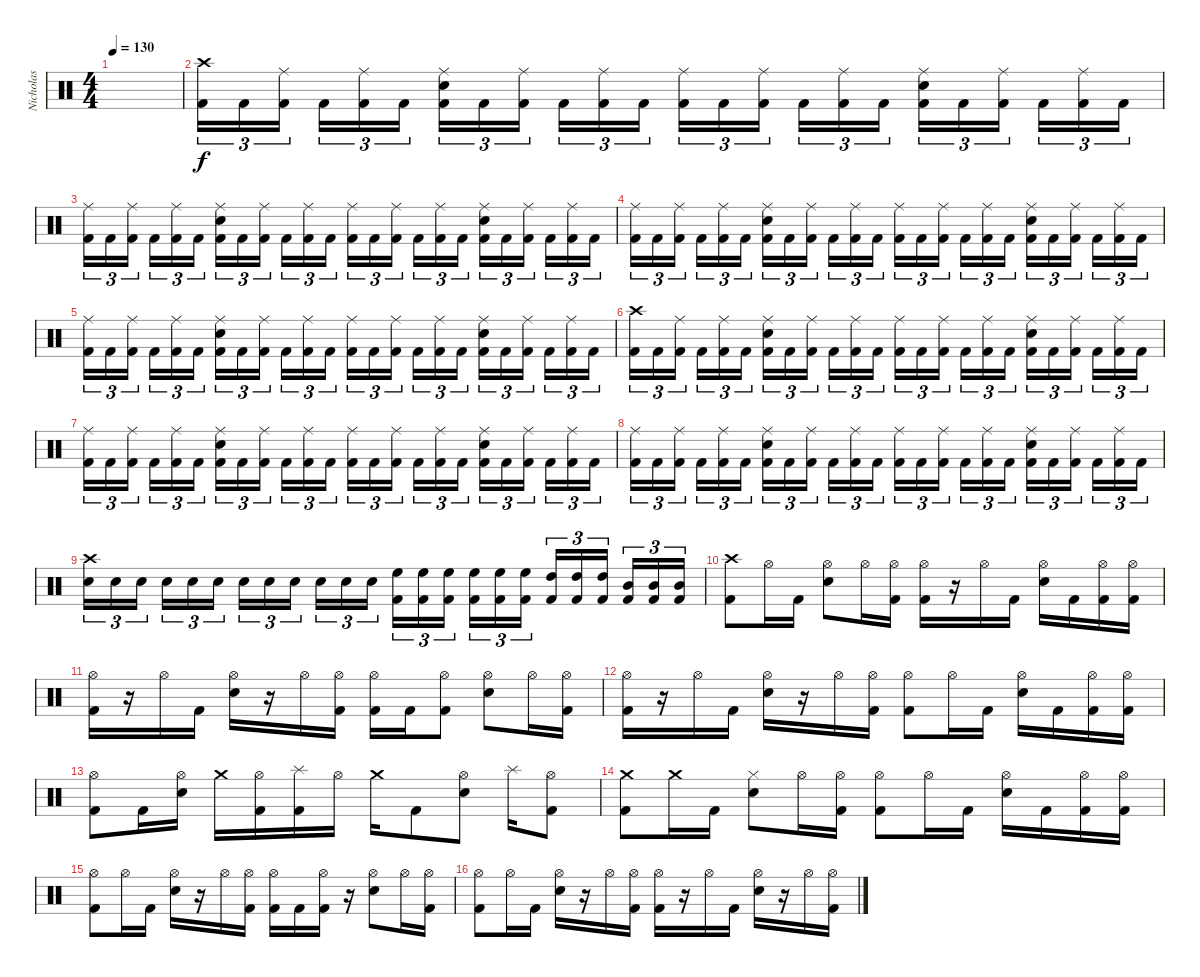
\track ("Nicholas" "Nicholas") {instrument percussion}
\staff {score}
\articulation defaults
\ts (4 4)
\tempo 130
\clef neutral
\ks c
|
("Crash high (hit)" "Kick (hit) 2").16{tu (3 2)} "Kick (hit) 2".16{tu (3 2)} ("Ride (middle)" "Kick (hit) 2").16{tu (3 2)} "Kick (hit) 2".16{tu (3 2)} ("Ride (middle)" "Kick (hit) 2").16{tu (3 2)} "Kick (hit) 2".16{tu (3 2)} ("Ride (middle)" "Snare (hit) 2" "Kick (hit) 2").16{tu (3 2)} "Kick (hit) 2".16{tu (3 2)} ("Ride (middle)" "Kick (hit) 2").16{tu (3 2)} "Kick (hit) 2".16{tu (3 2)} ("Ride (middle)" "Kick (hit) 2").16{tu (3 2)} "Kick (hit) 2".16{tu (3 2)} ("Ride (middle)" "Kick (hit) 2").16{tu (3 2)} "Kick (hit) 2".16{tu (3 2)} ("Ride (middle)" "Kick (hit) 2").16{tu (3 2)} "Kick (hit) 2".16{tu (3 2)} ("Ride (middle)" "Kick (hit) 2").16{tu (3 2)} "Kick (hit) 2".16{tu (3 2)} ("Ride (middle)" "Snare (hit) 2" "Kick (hit) 2").16{tu (3 2)} "Kick (hit) 2".16{tu (3 2)} ("Ride (middle)" "Kick (hit) 2").16{tu (3 2)} "Kick (hit) 2".16{tu (3 2)} ("Ride (middle)" "Kick (hit) 2").16{tu (3 2)} "Kick (hit) 2".16{tu (3 2)} |
("Ride (middle)" "Kick (hit) 2").16{tu (3 2)} "Kick (hit) 2".16{tu (3 2)} ("Ride (middle)" "Kick (hit) 2").16{tu (3 2)} "Kick (hit) 2".16{tu (3 2)} ("Ride (middle)" "Kick (hit) 2").16{tu (3 2)} "Kick (hit) 2".16{tu (3 2)} ("Ride (middle)" "Snare (hit) 2" "Kick (hit) 2").16{tu (3 2)} "Kick (hit) 2".16{tu (3 2)} ("Ride (middle)" "Kick (hit) 2").16{tu (3 2)} "Kick (hit) 2".16{tu (3 2)} ("Ride (middle)" "Kick (hit) 2").16{tu (3 2)} "Kick (hit) 2".16{tu (3 2)} ("Ride (middle)" "Kick (hit) 2").16{tu (3 2)} "Kick (hit) 2".16{tu (3 2)} ("Ride (middle)" "Kick (hit) 2").16{tu (3 2)} "Kick (hit) 2".16{tu (3 2)} ("Ride (middle)" "Kick (hit) 2").16{tu (3 2)} "Kick (hit) 2".16{tu (3 2)} ("Ride (middle)" "Snare (hit) 2" "Kick (hit) 2").16{tu (3 2)} "Kick (hit) 2".16{tu (3 2)} ("Ride (middle)" "Kick (hit) 2").16{tu (3 2)} "Kick (hit) 2".16{tu (3 2)} ("Ride (middle)" "Kick (hit) 2").16{tu (3 2)} "Kick (hit) 2".16{tu (3 2)} |
("Ride (middle)" "Kick (hit) 2").16{tu (3 2)} "Kick (hit) 2".16{tu (3 2)} ("Ride (middle)" "Kick (hit) 2").16{tu (3 2)} "Kick (hit) 2".16{tu (3 2)} ("Ride (middle)" "Kick (hit) 2").16{tu (3 2)} "Kick (hit) 2".16{tu (3 2)} ("Ride (middle)" "Snare (hit) 2" "Kick (hit) 2").16{tu (3 2)} "Kick (hit) 2".16{tu (3 2)} ("Ride (middle)" "Kick (hit) 2").16{tu (3 2)} "Kick (hit) 2".16{tu (3 2)} ("Ride (middle)" "Kick (hit) 2").16{tu (3 2)} "Kick (hit) 2".16{tu (3 2)} ("Ride (middle)" "Kick (hit) 2").16{tu (3 2)} "Kick (hit) 2".16{tu (3 2)} ("Ride (middle)" "Kick (hit) 2").16{tu (3 2)} "Kick (hit) 2".16{tu (3 2)} ("Ride (middle)" "Kick (hit) 2").16{tu (3 2)} "Kick (hit) 2".16{tu (3 2)} ("Ride (middle)" "Snare (hit) 2" "Kick (hit) 2").16{tu (3 2)} "Kick (hit) 2".16{tu (3 2)} ("Ride (middle)" "Kick (hit) 2").16{tu (3 2)} "Kick (hit) 2".16{tu (3 2)} ("Ride (middle)" "Kick (hit) 2").16{tu (3 2)} "Kick (hit) 2".16{tu (3 2)} |
("Ride (middle)" "Kick (hit) 2").16{tu (3 2)} "Kick (hit) 2".16{tu (3 2)} ("Ride (middle)" "Kick (hit) 2").16{tu (3 2)} "Kick (hit) 2".16{tu (3 2)} ("Ride (middle)" "Kick (hit) 2").16{tu (3 2)} "Kick (hit) 2".16{tu (3 2)} ("Ride (middle)" "Snare (hit) 2" "Kick (hit) 2").16{tu (3 2)} "Kick (hit) 2".16{tu (3 2)} ("Ride (middle)" "Kick (hit) 2").16{tu (3 2)} "Kick (hit) 2".16{tu (3 2)} ("Ride (middle)" "Kick (hit) 2").16{tu (3 2)} "Kick (hit) 2".16{tu (3 2)} ("Ride (middle)" "Kick (hit) 2").16{tu (3 2)} "Kick (hit) 2".16{tu (3 2)} ("Ride (middle)" "Kick (hit) 2").16{tu (3 2)} "Kick (hit) 2".16{tu (3 2)} ("Ride (middle)" "Kick (hit) 2").16{tu (3 2)} "Kick (hit) 2".16{tu (3 2)} ("Ride (middle)" "Snare (hit) 2" "Kick (hit) 2").16{tu (3 2)} "Kick (hit) 2".16{tu (3 2)} ("Ride (middle)" "Kick (hit) 2").16{tu (3 2)} "Kick (hit) 2".16{tu (3 2)} ("Ride (middle)" "Kick (hit) 2").16{tu (3 2)} "Kick (hit) 2".16{tu (3 2)} |
("Crash high (hit)" "Kick (hit) 2").16{tu (3 2)} "Kick (hit) 2".16{tu (3 2)} ("Ride (middle)" "Kick (hit) 2").16{tu (3 2)} "Kick (hit) 2".16{tu (3 2)} ("Ride (middle)" "Kick (hit) 2").16{tu (3 2)} "Kick (hit) 2".16{tu (3 2)} ("Ride (middle)" "Snare (hit) 2" "Kick (hit) 2").16{tu (3 2)} "Kick (hit) 2".16{tu (3 2)} ("Ride (middle)" "Kick (hit) 2").16{tu (3 2)} "Kick (hit) 2".16{tu (3 2)} ("Ride (middle)" "Kick (hit) 2").16{tu (3 2)} "Kick (hit) 2".16{tu (3 2)} ("Ride (middle)" "Kick (hit) 2").16{tu (3 2)} "Kick (hit) 2".16{tu (3 2)} ("Ride (middle)" "Kick (hit) 2").16{tu (3 2)} "Kick (hit) 2".16{tu (3 2)} ("Ride (middle)" "Kick (hit) 2").16{tu (3 2)} "Kick (hit) 2".16{tu (3 2)} ("Ride (middle)" "Snare (hit) 2" "Kick (hit) 2").16{tu (3 2)} "Kick (hit) 2".16{tu (3 2)} ("Ride (middle)" "Kick (hit) 2").16{tu (3 2)} "Kick (hit) 2".16{tu (3 2)} ("Ride (middle)" "Kick (hit) 2").16{tu (3 2)} "Kick (hit) 2".16{tu (3 2)} |
("Ride (middle)" "Kick (hit) 2").16{tu (3 2)} "Kick (hit) 2".16{tu (3 2)} ("Ride (middle)" "Kick (hit) 2").16{tu (3 2)} "Kick (hit) 2".16{tu (3 2)} ("Ride (middle)" "Kick (hit) 2").16{tu (3 2)} "Kick (hit) 2".16{tu (3 2)} ("Ride (middle)" "Snare (hit) 2" "Kick (hit) 2").16{tu (3 2)} "Kick (hit) 2".16{tu (3 2)} ("Ride (middle)" "Kick (hit) 2").16{tu (3 2)} "Kick (hit) 2".16{tu (3 2)} ("Ride (middle)" "Kick (hit) 2").16{tu (3 2)} "Kick (hit) 2".16{tu (3 2)} ("Ride (middle)" "Kick (hit) 2").16{tu (3 2)} "Kick (hit) 2".16{tu (3 2)} ("Ride (middle)" "Kick (hit) 2").16{tu (3 2)} "Kick (hit) 2".16{tu (3 2)} ("Ride (middle)" "Kick (hit) 2").16{tu (3 2)} "Kick (hit) 2".16{tu (3 2)} ("Ride (middle)" "Snare (hit) 2" "Kick (hit) 2").16{tu (3 2)} "Kick (hit) 2".16{tu (3 2)} ("Ride (middle)" "Kick (hit) 2").16{tu (3 2)} "Kick (hit) 2".16{tu (3 2)} ("Ride (middle)" "Kick (hit) 2").16{tu (3 2)} "Kick (hit) 2".16{tu (3 2)} |
("Ride (middle)" "Kick (hit) 2").16{tu (3 2)} "Kick (hit) 2".16{tu (3 2)} ("Ride (middle)" "Kick (hit) 2").16{tu (3 2)} "Kick (hit) 2".16{tu (3 2)} ("Ride (middle)" "Kick (hit) 2").16{tu (3 2)} "Kick (hit) 2".16{tu (3 2)} ("Ride (middle)" "Snare (hit) 2" "Kick (hit) 2").16{tu (3 2)} "Kick (hit) 2".16{tu (3 2)} ("Ride (middle)" "Kick (hit) 2").16{tu (3 2)} "Kick (hit) 2".16{tu (3 2)} ("Ride (middle)" "Kick (hit) 2").16{tu (3 2)} "Kick (hit) 2".16{tu (3 2)} ("Ride (middle)" "Kick (hit) 2").16{tu (3 2)} "Kick (hit) 2".16{tu (3 2)} ("Ride (middle)" "Kick (hit) 2").16{tu (3 2)} "Kick (hit) 2".16{tu (3 2)} ("Ride (middle)" "Kick (hit) 2").16{tu (3 2)} "Kick (hit) 2".16{tu (3 2)} ("Ride (middle)" "Snare (hit) 2" "Kick (hit) 2").16{tu (3 2)} "Kick (hit) 2".16{tu (3 2)} ("Ride (middle)" "Kick (hit) 2").16{tu (3 2)} "Kick (hit) 2".16{tu (3 2)} ("Ride (middle)" "Kick (hit) 2").16{tu (3 2)} "Kick (hit) 2".16{tu (3 2)} |
("Crash high (hit)" "Snare (hit) 2").16{tu (3 2)} "Snare (hit) 2".16{tu (3 2)} "Snare (hit) 2".16{tu (3 2)} "Snare (hit) 2".16{tu (3 2)} "Snare (hit) 2".16{tu (3 2)} "Snare (hit) 2".16{tu (3 2)} "Snare (hit) 2".16{tu (3 2)} "Snare (hit) 2".16{tu (3 2)} "Snare (hit) 2".16{tu (3 2)} "Snare (hit) 2".16{tu (3 2)} "Snare (hit) 2".16{tu (3 2)} "Snare (hit) 2".16{tu (3 2)} ("High Floor Tom (hit)" "Kick (hit) 2").16{tu (3 2)} ("High Floor Tom (hit)" "Kick (hit) 2").16{tu (3 2)} ("High Floor Tom (hit)" "Kick (hit) 2").16{tu (3 2)} ("High Floor Tom (hit)" "Kick (hit) 2").16{tu (3 2)} ("High Floor Tom (hit)" "Kick (hit) 2").16{tu (3 2)} ("High Floor Tom (hit)" "Kick (hit) 2").16{tu (3 2)} ("High Tom (hit)" "Kick (hit) 2").16{tu (3 2)} ("High Tom (hit)" "Kick (hit) 2").16{tu (3 2)} ("High Tom (hit)" "Kick (hit) 2").16{tu (3 2)} ("Mid Tom (hit)" "Kick (hit) 2").16{tu (3 2)} ("Mid Tom (hit)" "Kick (hit) 2").16{tu (3 2)} ("Mid Tom (hit)" "Kick (hit) 2").16{tu (3 2)} |
("Crash high (hit)" "Kick (hit) 2").8 "Hi-Hat (open)".16 "Kick (hit) 2".16 ("Hi-Hat (open)" "Snare (hit) 2").8 "Hi-Hat (open)".16 ("Hi-Hat (open)" "Kick (hit) 2").16 ("Hi-Hat (open)" "Kick (hit) 2").16 r.16 "Hi-Hat (open)".16 "Kick (hit) 2".16 ("Hi-Hat (open)" "Snare (hit) 2").16 "Kick (hit) 2".16 ("Hi-Hat (open)" "Kick (hit) 2").16 ("Hi-Hat (open)" "Kick (hit) 2").16 |
("Hi-Hat (open)" "Kick (hit) 2").16 r.16 "Hi-Hat (open)".16 "Kick (hit) 2".16 ("Hi-Hat (open)" "Snare (hit) 2").16 r.16 "Hi-Hat (open)".16 ("Hi-Hat (open)" "Kick (hit) 2").16 ("Hi-Hat (open)" "Kick (hit) 2").16 "Kick (hit) 2".16 ("Hi-Hat (open)" "Kick (hit) 2").8 ("Hi-Hat (open)" "Snare (hit) 2").8 "Hi-Hat (open)".16 ("Hi-Hat (open)" "Kick (hit) 2").16 |
("Hi-Hat (open)" "Kick (hit) 2").16 r.16 "Hi-Hat (open)".16 "Kick (hit) 2".16 ("Hi-Hat (open)" "Snare (hit) 2").16 r.16 "Hi-Hat (open)".16 ("Hi-Hat (open)" "Kick (hit) 2").16 ("Hi-Hat (open)" "Kick (hit) 2").8 "Hi-Hat (open)".16 "Kick (hit) 2".16 ("Hi-Hat (open)" "Snare (hit) 2").16 "Kick (hit) 2".16 ("Hi-Hat (open)" "Kick (hit) 2").16 ("Hi-Hat (open)" "Kick (hit) 2").16 |
("Hi-Hat (open)" "Kick (hit) 2").8 "Kick (hit) 2".16 ("Hi-Hat (open)" "Snare (hit) 2").16 "Crash medium (hit)".16 ("Hi-Hat (open)" "Kick (hit) 2").16 ("Splash (hit)" "Kick (hit) 2").16 "Hi-Hat (open)".16 "Crash medium (hit)".16 "Kick (hit) 2".8 ("Hi-Hat (open)" "Snare (hit) 2").8 "Splash (hit)".16 ("Hi-Hat (open)" "Kick (hit) 2").8 |
("Crash medium (hit)" "Kick (hit) 2").8 "Crash medium (hit)".16 "Kick (hit) 2".16 ("Hi-Hat (closed)" "Snare (hit) 2").8 "Hi-Hat (open)".16 ("Hi-Hat (open)" "Kick (hit) 2").16 ("Hi-Hat (open)" "Kick (hit) 2").8 "Hi-Hat (open)".16 "Kick (hit) 2".16 ("Hi-Hat (open)" "Snare (hit) 2").16 "Kick (hit) 2".16 ("Hi-Hat (open)" "Kick (hit) 2").16 ("Hi-Hat (open)" "Kick (hit) 2").16 |
("Hi-Hat (open)" "Kick (hit) 2").8 "Hi-Hat (open)".16 "Kick (hit) 2".16 ("Hi-Hat (open)" "Snare (hit) 2").16 r.16 "Hi-Hat (open)".16 ("Hi-Hat (open)" "Kick (hit) 2").16 ("Hi-Hat (open)" "Kick (hit) 2").16 "Kick (hit) 2".16 ("Hi-Hat (open)" "Kick (hit) 2").16 r.16 ("Hi-Hat (open)" "Snare (hit) 2").8 "Hi-Hat (open)".16 ("Hi-Hat (open)" "Kick (hit) 2").16 |
("Hi-Hat (open)" "Kick (hit) 2").8 "Hi-Hat (open)".16 "Kick (hit) 2".16 ("Hi-Hat (open)" "Snare (hit) 2").16 r.16 "Hi-Hat (open)".16 ("Hi-Hat (open)" "Kick (hit) 2").16 ("Hi-Hat (open)" "Kick (hit) 2").16 r.16 "Hi-Hat (open)".16 "Kick (hit) 2".16 ("Hi-Hat (open)" "Snare (hit) 2").16 r.16 "Hi-Hat (open)".16 ("Hi-Hat (open)" "Kick (hit) 2").16
